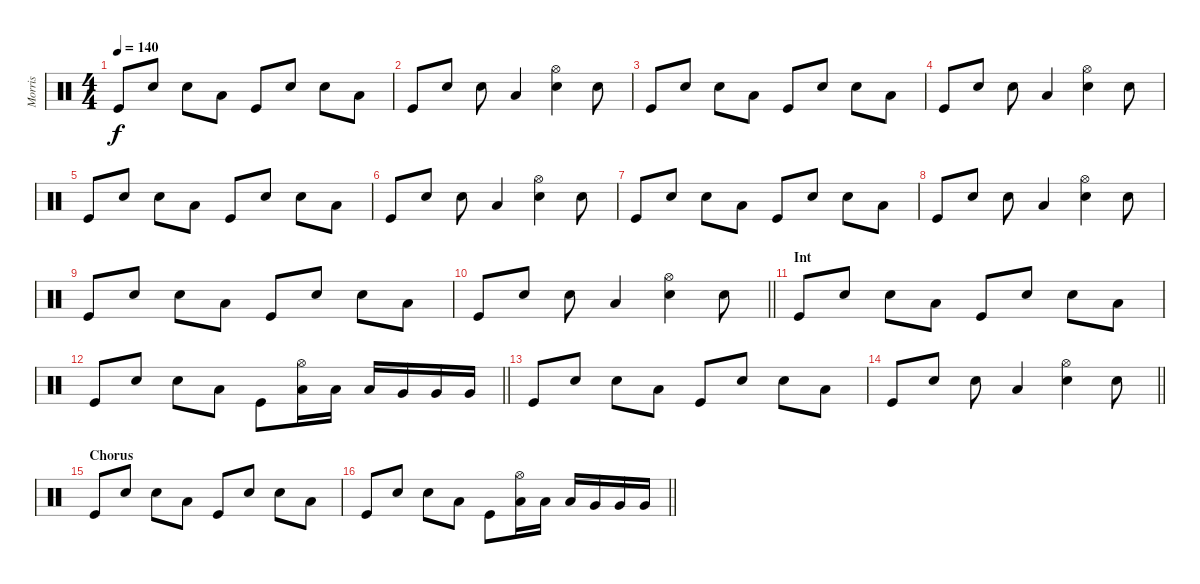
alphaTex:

\track ("Morris" "Morris") {instrument percussion}
\staff {score}
\articulation defaults
\ts (4 4)
\tempo 140
\clef neutral
\ks c "Kick (hit)".8{dy f} "Electric Snare (hit)".8 "Electric Snare (hit)".8 "Low Tom (hit)".8 "Kick (hit)".8 "Electric Snare (hit)".8 "Electric Snare (hit)".8 "Low Tom (hit)".8
|
"Kick (hit)".8 "Electric Snare (hit)".8 "Electric Snare (hit)".8 "Low Tom (hit)".4 ("Hi-Hat (open)" "Electric Snare (hit)").4 "Electric Snare (hit)".8 |
"Kick (hit)".8 "Electric Snare (hit)".8 "Electric Snare (hit)".8 "Low Tom (hit)".8 "Kick (hit)".8 "Electric Snare (hit)".8 "Electric Snare (hit)".8 "Low Tom (hit)".8 |
"Kick (hit)".8 "Electric Snare (hit)".8 "Electric Snare (hit)".8 "Low Tom (hit)".4 ("Hi-Hat (open)" "Electric Snare (hit)").4 "Electric Snare (hit)".8 |
"Kick (hit)".8 "Electric Snare (hit)".8 "Electric Snare (hit)".8 "Low Tom (hit)".8 "Kick (hit)".8 "Electric Snare (hit)".8 "Electric Snare (hit)".8 "Low Tom (hit)".8 |
"Kick (hit)".8 "Electric Snare (hit)".8 "Electric Snare (hit)".8 "Low Tom (hit)".4 ("Hi-Hat (open)" "Electric Snare (hit)").4 "Electric Snare (hit)".8 |
"Kick (hit)".8 "Electric Snare (hit)".8 "Electric Snare (hit)".8 "Low Tom (hit)".8 "Kick (hit)".8 "Electric Snare (hit)".8 "Electric Snare (hit)".8 "Low Tom (hit)".8 |
"Kick (hit)".8 "Electric Snare (hit)".8 "Electric Snare (hit)".8 "Low Tom (hit)".4 ("Hi-Hat (open)" "Electric Snare (hit)").4 "Electric Snare (hit)".8 |
"Kick (hit)".8 "Electric Snare (hit)".8 "Electric Snare (hit)".8 "Low Tom (hit)".8 "Kick (hit)".8 "Electric Snare (hit)".8 "Electric Snare (hit)".8 "Low Tom (hit)".8 |
\barLineRight lightlight "Kick (hit)".8 "Electric Snare (hit)".8 "Electric Snare (hit)".8 "Low Tom (hit)".4
("Hi-Hat (open)" "Electric Snare (hit)").4 "Electric Snare (hit)".8 |
\section ("" "Int")
"Kick (hit)".8 "Electric Snare (hit)".8 "Electric Snare (hit)".8 "Low Tom (hit)".8 "Kick (hit)".8 "Electric Snare (hit)".8 "Electric Snare (hit)".8 "Low Tom (hit)".8 |
\barLineRight lightlight "Kick (hit)".8 "Electric Snare (hit)".8 "Electric Snare (hit)".8 "Low Tom (hit)".8 "Kick (hit)".8
("Hi-Hat (open)" "Low Tom (hit)").16 "Low Tom (hit)".16 "Low Tom (hit)".16 "Very Low Tom (hit)".16 "Very Low Tom (hit)".16 "Very Low Tom (hit)".16 |
"Kick (hit)".8 "Electric Snare (hit)".8 "Electric Snare (hit)".8 "Low Tom (hit)".8 "Kick (hit)".8 "Electric Snare (hit)".8 "Electric Snare (hit)".8 "Low Tom (hit)".8 |
\barLineRight lightlight "Kick (hit)".8 "Electric Snare (hit)".8 "Electric Snare (hit)".8 "Low Tom (hit)".4
("Hi-Hat (open)" "Electric Snare (hit)").4 "Electric Snare (hit)".8 |
\section ("" "Chorus")
"Kick (hit)".8 "Electric Snare (hit)".8 "Electric Snare (hit)".8 "Low Tom (hit)".8 "Kick (hit)".8 "Electric Snare (hit)".8 "Electric Snare (hit)".8 "Low Tom (hit)".8 |
\barLineRight lightlight "Kick (hit)".8 "Electric Snare (hit)".8 "Electric Snare (hit)".8 "Low Tom (hit)".8 "Kick (hit)".8
("Hi-Hat (open)" "Low Tom (hit)").16 "Low Tom (hit)".16 "Low Tom (hit)".16 "Very Low Tom (hit)".16 "Very Low Tom (hit)".16 "Very Low Tom (hit)".16
